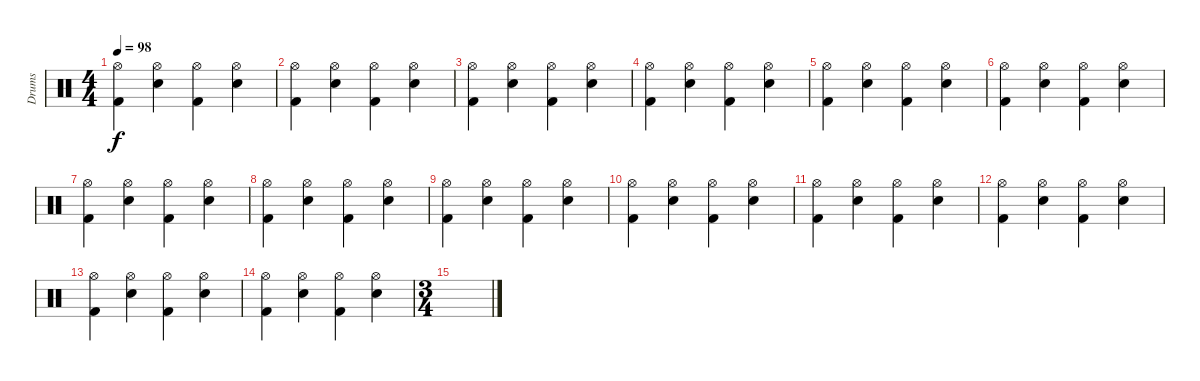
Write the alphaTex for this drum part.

\track ("Drums" "Drums") {instrument percussion}
\staff {score}
\articulation defaults
\ts (4 4)
\tempo 98
\clef neutral
\ks c
("Hi-Hat (open)" "Kick (hit) 2").4{dy f} ("Hi-Hat (open)" "Snare (hit) 2").4 ("Hi-Hat (open)" "Kick (hit) 2").4 ("Hi-Hat (open)" "Snare (hit) 2").4 |
("Hi-Hat (open)" "Kick (hit) 2").4 ("Hi-Hat (open)" "Snare (hit) 2").4 ("Hi-Hat (open)" "Kick (hit) 2").4 ("Hi-Hat (open)" "Snare (hit) 2").4 |
("Hi-Hat (open)" "Kick (hit) 2").4 ("Hi-Hat (open)" "Snare (hit) 2").4 ("Hi-Hat (open)" "Kick (hit) 2").4 ("Hi-Hat (open)" "Snare (hit) 2").4 |
("Hi-Hat (open)" "Kick (hit) 2").4 ("Hi-Hat (open)" "Snare (hit) 2").4 ("Hi-Hat (open)" "Kick (hit) 2").4 ("Hi-Hat (open)" "Snare (hit) 2").4 |
("Hi-Hat (open)" "Kick (hit) 2").4 ("Hi-Hat (open)" "Snare (hit) 2").4 ("Hi-Hat (open)" "Kick (hit) 2").4 ("Hi-Hat (open)" "Snare (hit) 2").4 |
("Hi-Hat (open)" "Kick (hit) 2").4 ("Hi-Hat (open)" "Snare (hit) 2").4 ("Hi-Hat (open)" "Kick (hit) 2").4 ("Hi-Hat (open)" "Snare (hit) 2").4 |
("Hi-Hat (open)" "Kick (hit) 2").4 ("Hi-Hat (open)" "Snare (hit) 2").4 ("Hi-Hat (open)" "Kick (hit) 2").4 ("Hi-Hat (open)" "Snare (hit) 2").4 |
("Hi-Hat (open)" "Kick (hit) 2").4 ("Hi-Hat (open)" "Snare (hit) 2").4 ("Hi-Hat (open)" "Kick (hit) 2").4 ("Hi-Hat (open)" "Snare (hit) 2").4 |
("Hi-Hat (open)" "Kick (hit) 2").4 ("Hi-Hat (open)" "Snare (hit) 2").4 ("Hi-Hat (open)" "Kick (hit) 2").4 ("Hi-Hat (open)" "Snare (hit) 2").4 |
("Hi-Hat (open)" "Kick (hit) 2").4 ("Hi-Hat (open)" "Snare (hit) 2").4 ("Hi-Hat (open)" "Kick (hit) 2").4 ("Hi-Hat (open)" "Snare (hit) 2").4 |
("Hi-Hat (open)" "Kick (hit) 2").4 ("Hi-Hat (open)" "Snare (hit) 2").4 ("Hi-Hat (open)" "Kick (hit) 2").4 ("Hi-Hat (open)" "Snare (hit) 2").4 |
("Hi-Hat (open)" "Kick (hit) 2").4 ("Hi-Hat (open)" "Snare (hit) 2").4 ("Hi-Hat (open)" "Kick (hit) 2").4 ("Hi-Hat (open)" "Snare (hit) 2").4 |
("Hi-Hat (open)" "Kick (hit) 2").4 ("Hi-Hat (open)" "Snare (hit) 2").4 ("Hi-Hat (open)" "Kick (hit) 2").4 ("Hi-Hat (open)" "Snare (hit) 2").4 |
("Hi-Hat (open)" "Kick (hit) 2").4 ("Hi-Hat (open)" "Snare (hit) 2").4 ("Hi-Hat (open)" "Kick (hit) 2").4 ("Hi-Hat (open)" "Snare (hit) 2").4 |
\ts (3 4)
